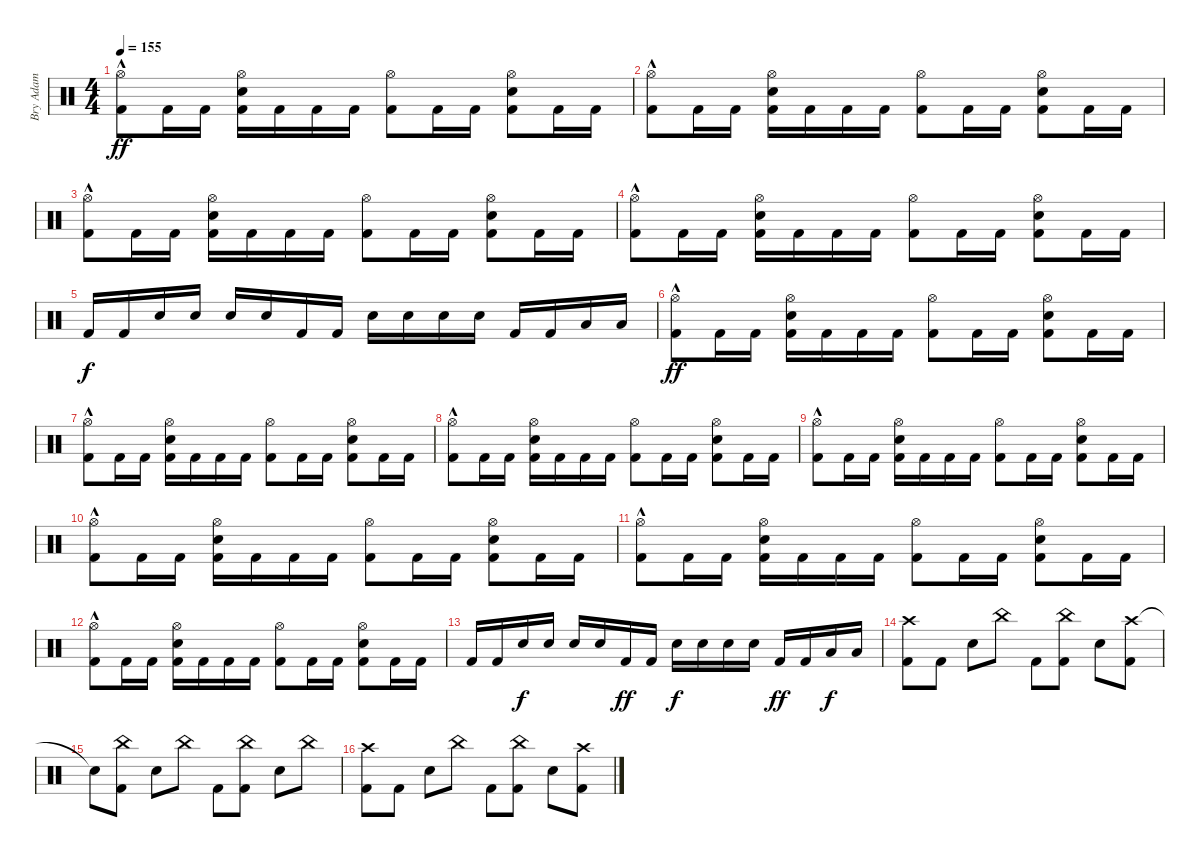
\track ("Bry Adam " "Bry Adam ") {instrument percussion}
\staff {score}
\articulation defaults
\ts (4 4)
\tempo 155
\clef neutral
\ks c
("Hi-Hat (open)"{hac} "Kick (hit) 2").8{dy ff} "Kick (hit) 2".16 "Kick (hit) 2".16 ("Hi-Hat (open)" "Snare (hit) 2" "Kick (hit) 2").16 "Kick (hit) 2".16 "Kick (hit) 2".16 "Kick (hit) 2".16 ("Hi-Hat (open)" "Kick (hit) 2").8 "Kick (hit) 2".16 "Kick (hit) 2".16 ("Hi-Hat (open)" "Snare (hit) 2" "Kick (hit) 2").8 "Kick (hit) 2".16 "Kick (hit) 2".16 |
("Hi-Hat (open)"{hac} "Kick (hit) 2").8 "Kick (hit) 2".16 "Kick (hit) 2".16 ("Hi-Hat (open)" "Snare (hit) 2" "Kick (hit) 2").16 "Kick (hit) 2".16 "Kick (hit) 2".16 "Kick (hit) 2".16 ("Hi-Hat (open)" "Kick (hit) 2").8 "Kick (hit) 2".16 "Kick (hit) 2".16 ("Hi-Hat (open)" "Snare (hit) 2" "Kick (hit) 2").8 "Kick (hit) 2".16 "Kick (hit) 2".16 |
("Hi-Hat (open)"{hac} "Kick (hit) 2").8 "Kick (hit) 2".16 "Kick (hit) 2".16 ("Hi-Hat (open)" "Snare (hit) 2" "Kick (hit) 2").16 "Kick (hit) 2".16 "Kick (hit) 2".16 "Kick (hit) 2".16 ("Hi-Hat (open)" "Kick (hit) 2").8 "Kick (hit) 2".16 "Kick (hit) 2".16 ("Hi-Hat (open)" "Snare (hit) 2" "Kick (hit) 2").8 "Kick (hit) 2".16 "Kick (hit) 2".16 |
("Hi-Hat (open)"{hac} "Kick (hit) 2").8 "Kick (hit) 2".16 "Kick (hit) 2".16 ("Hi-Hat (open)" "Snare (hit) 2" "Kick (hit) 2").16 "Kick (hit) 2".16 "Kick (hit) 2".16 "Kick (hit) 2".16 ("Hi-Hat (open)" "Kick (hit) 2").8 "Kick (hit) 2".16 "Kick (hit) 2".16 ("Hi-Hat (open)" "Snare (hit) 2" "Kick (hit) 2").8 "Kick (hit) 2".16 "Kick (hit) 2".16 |
"Kick (hit) 2".16{dy f} "Kick (hit) 2".16 "Snare (hit) 2".16 "Snare (hit) 2".16 "Snare (hit) 2".16 "Snare (hit) 2".16 "Kick (hit) 2".16 "Kick (hit) 2".16 "Snare (hit) 2".16 "Snare (hit) 2".16 "Snare (hit) 2".16 "Snare (hit) 2".16 "Kick (hit) 2".16 "Kick (hit) 2".16 "Low Tom (hit)".16 "Low Tom (hit)".16 |
("Hi-Hat (open)"{hac} "Kick (hit) 2").8{dy ff} "Kick (hit) 2".16 "Kick (hit) 2".16 ("Hi-Hat (open)" "Snare (hit) 2" "Kick (hit) 2").16 "Kick (hit) 2".16 "Kick (hit) 2".16 "Kick (hit) 2".16 ("Hi-Hat (open)" "Kick (hit) 2").8 "Kick (hit) 2".16 "Kick (hit) 2".16 ("Hi-Hat (open)" "Snare (hit) 2" "Kick (hit) 2").8 "Kick (hit) 2".16 "Kick (hit) 2".16 |
("Hi-Hat (open)"{hac} "Kick (hit) 2").8 "Kick (hit) 2".16 "Kick (hit) 2".16 ("Hi-Hat (open)" "Snare (hit) 2" "Kick (hit) 2").16 "Kick (hit) 2".16 "Kick (hit) 2".16 "Kick (hit) 2".16 ("Hi-Hat (open)" "Kick (hit) 2").8 "Kick (hit) 2".16 "Kick (hit) 2".16 ("Hi-Hat (open)" "Snare (hit) 2" "Kick (hit) 2").8 "Kick (hit) 2".16 "Kick (hit) 2".16 |
("Hi-Hat (open)"{hac} "Kick (hit) 2").8 "Kick (hit) 2".16 "Kick (hit) 2".16 ("Hi-Hat (open)" "Snare (hit) 2" "Kick (hit) 2").16 "Kick (hit) 2".16 "Kick (hit) 2".16 "Kick (hit) 2".16 ("Hi-Hat (open)" "Kick (hit) 2").8 "Kick (hit) 2".16 "Kick (hit) 2".16 ("Hi-Hat (open)" "Snare (hit) 2" "Kick (hit) 2").8 "Kick (hit) 2".16 "Kick (hit) 2".16 |
("Hi-Hat (open)"{hac} "Kick (hit) 2").8 "Kick (hit) 2".16 "Kick (hit) 2".16 ("Hi-Hat (open)" "Snare (hit) 2" "Kick (hit) 2").16 "Kick (hit) 2".16 "Kick (hit) 2".16 "Kick (hit) 2".16 ("Hi-Hat (open)" "Kick (hit) 2").8 "Kick (hit) 2".16 "Kick (hit) 2".16 ("Hi-Hat (open)" "Snare (hit) 2" "Kick (hit) 2").8 "Kick (hit) 2".16 "Kick (hit) 2".16 |
("Hi-Hat (open)"{hac} "Kick (hit) 2").8 "Kick (hit) 2".16 "Kick (hit) 2".16 ("Hi-Hat (open)" "Snare (hit) 2" "Kick (hit) 2").16 "Kick (hit) 2".16 "Kick (hit) 2".16 "Kick (hit) 2".16 ("Hi-Hat (open)" "Kick (hit) 2").8 "Kick (hit) 2".16 "Kick (hit) 2".16 ("Hi-Hat (open)" "Snare (hit) 2" "Kick (hit) 2").8 "Kick (hit) 2".16 "Kick (hit) 2".16 |
("Hi-Hat (open)"{hac} "Kick (hit) 2").8 "Kick (hit) 2".16 "Kick (hit) 2".16 ("Hi-Hat (open)" "Snare (hit) 2" "Kick (hit) 2").16 "Kick (hit) 2".16 "Kick (hit) 2".16 "Kick (hit) 2".16 ("Hi-Hat (open)" "Kick (hit) 2").8 "Kick (hit) 2".16 "Kick (hit) 2".16 ("Hi-Hat (open)" "Snare (hit) 2" "Kick (hit) 2").8 "Kick (hit) 2".16 "Kick (hit) 2".16 |
("Hi-Hat (open)"{hac} "Kick (hit) 2").8 "Kick (hit) 2".16 "Kick (hit) 2".16 ("Hi-Hat (open)" "Snare (hit) 2" "Kick (hit) 2").16 "Kick (hit) 2".16 "Kick (hit) 2".16 "Kick (hit) 2".16 ("Hi-Hat (open)" "Kick (hit) 2").8 "Kick (hit) 2".16 "Kick (hit) 2".16 ("Hi-Hat (open)" "Snare (hit) 2" "Kick (hit) 2").8 "Kick (hit) 2".16 "Kick (hit) 2".16 |
"Kick (hit) 2".16 "Kick (hit) 2".16 "Snare (hit) 2".16{dy f} "Snare (hit) 2".16 "Snare (hit) 2".16 "Snare (hit) 2".16 "Kick (hit) 2".16{dy ff} "Kick (hit) 2".16 "Snare (hit) 2".16{dy f} "Snare (hit) 2".16 "Snare (hit) 2".16 "Snare (hit) 2".16 "Kick (hit) 2".16{dy ff} "Kick (hit) 2".16 "Low Tom (hit)".16{dy f} "Low Tom (hit)".16 |
("Crash high (hit)" "Kick (hit) 2").8 "Kick (hit) 2".8 "Snare (hit) 2".8 "China (hit)".8 "Kick (hit) 2".8 ("China (hit)" "Kick (hit) 2").8 "Snare (hit) 2".8 ("Crash high (hit)" "Kick (hit) 2").8 |
"Snare (hit)"{t}.8 ("China (hit)" "Kick (hit) 2").8 "Snare (hit) 2".8 "China (hit)".8 "Kick (hit) 2".8 ("China (hit)" "Kick (hit) 2").8 "Snare (hit) 2".8 "China (hit)".8 |
("Crash high (hit)" "Kick (hit) 2").8 "Kick (hit) 2".8 "Snare (hit) 2".8 "China (hit)".8 "Kick (hit) 2".8 ("China (hit)" "Kick (hit) 2").8 "Snare (hit) 2".8 ("Crash high (hit)" "Kick (hit) 2").8
